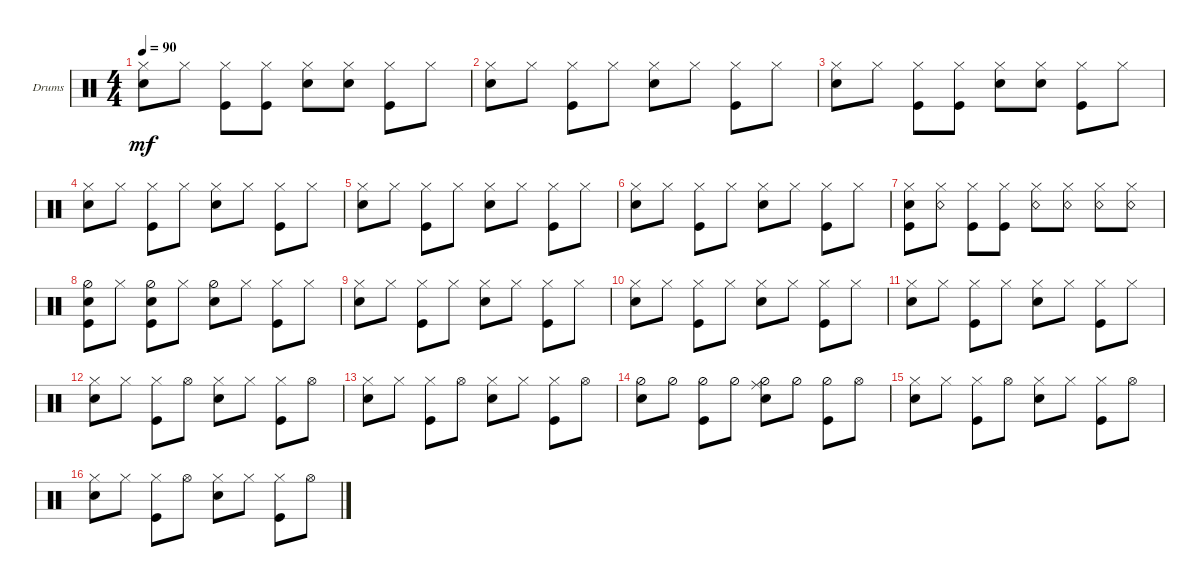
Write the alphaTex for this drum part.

\defaultSystemsLayout 4
\bracketExtendMode groupsimilarinstruments
\firstSystemTrackNameOrientation horizontal
\otherSystemsTrackNameOrientation horizontal
\track ("Drumkit" "Drums") {instrument percussion}
\staff {score}
\articulation defaults
\ts (4 4)
\tempo 90
\clef neutral
\ks c
("Snare (hit) 2" "Hi-Hat (closed)").8{dy mf} "Hi-Hat (closed)".8 ("Kick (hit)" "Hi-Hat (closed)").8 ("Hi-Hat (closed)" "Kick (hit)").8 ("Snare (hit) 2" "Hi-Hat (closed)").8 ("Hi-Hat (closed)" "Snare (hit) 2").8 ("Kick (hit)" "Hi-Hat (closed)").8 "Hi-Hat (closed)".8 |
("Snare (hit) 2" "Hi-Hat (closed)").8 "Hi-Hat (closed)".8 ("Kick (hit)" "Hi-Hat (closed)").8 "Hi-Hat (closed)".8 ("Snare (hit) 2" "Hi-Hat (closed)").8 "Hi-Hat (closed)".8 ("Kick (hit)" "Hi-Hat (closed)").8 "Hi-Hat (closed)".8 |
("Snare (hit) 2" "Hi-Hat (closed)").8 "Hi-Hat (closed)".8 ("Kick (hit)" "Hi-Hat (closed)").8 ("Hi-Hat (closed)" "Kick (hit)").8 ("Snare (hit) 2" "Hi-Hat (closed)").8 ("Hi-Hat (closed)" "Snare (hit) 2").8 ("Kick (hit)" "Hi-Hat (closed)").8 "Hi-Hat (closed)".8 |
("Snare (hit) 2" "Hi-Hat (closed)").8 "Hi-Hat (closed)".8 ("Kick (hit)" "Hi-Hat (closed)").8 "Hi-Hat (closed)".8 ("Snare (hit) 2" "Hi-Hat (closed)").8 "Hi-Hat (closed)".8 ("Kick (hit)" "Hi-Hat (closed)").8 "Hi-Hat (closed)".8 |
("Snare (hit) 2" "Hi-Hat (closed)").8 "Hi-Hat (closed)".8 ("Kick (hit)" "Hi-Hat (closed)").8 "Hi-Hat (closed)".8 ("Snare (hit) 2" "Hi-Hat (closed)").8 "Hi-Hat (closed)".8 ("Kick (hit)" "Hi-Hat (closed)").8 "Hi-Hat (closed)".8 |
("Snare (hit) 2" "Hi-Hat (closed)").8 "Hi-Hat (closed)".8 ("Kick (hit)" "Hi-Hat (closed)").8 "Hi-Hat (closed)".8 ("Snare (hit) 2" "Hi-Hat (closed)").8 "Hi-Hat (closed)".8 ("Kick (hit)" "Hi-Hat (closed)").8 "Hi-Hat (closed)".8 |
("Snare (hit) 2" "Hi-Hat (closed)" "Kick (hit)").8 ("Hi-Hat (closed)" "Snare (rim shot)").8 ("Kick (hit)" "Hi-Hat (closed)").8 ("Hi-Hat (closed)" "Kick (hit)").8 ("Snare (rim shot)" "Hi-Hat (closed)").8 ("Hi-Hat (closed)" "Snare (rim shot)").8 ("Hi-Hat (closed)" "Snare (rim shot)").8 ("Hi-Hat (closed)" "Snare (rim shot)").8 |
("Snare (hit) 2" "Kick (hit)" "Hi-Hat (half)").8 "Hi-Hat (closed)".8 ("Snare (hit) 2" "Kick (hit)" "Hi-Hat (half)").8 "Hi-Hat (closed)".8 ("Snare (hit) 2" "Hi-Hat (half)").8 "Hi-Hat (closed)".8 ("Kick (hit)" "Hi-Hat (closed)").8 "Hi-Hat (closed)".8 |
("Snare (hit) 2" "Hi-Hat (closed)").8 "Hi-Hat (closed)".8 ("Kick (hit)" "Hi-Hat (closed)").8 "Hi-Hat (closed)".8 ("Snare (hit) 2" "Hi-Hat (closed)").8 "Hi-Hat (closed)".8 ("Kick (hit)" "Hi-Hat (closed)").8 "Hi-Hat (closed)".8 |
("Snare (hit) 2" "Hi-Hat (closed)").8 "Hi-Hat (closed)".8 ("Kick (hit)" "Hi-Hat (closed)").8 "Hi-Hat (closed)".8 ("Snare (hit) 2" "Hi-Hat (closed)").8 "Hi-Hat (closed)".8 ("Kick (hit)" "Hi-Hat (closed)").8 "Hi-Hat (closed)".8 |
("Snare (hit) 2" "Hi-Hat (closed)").8 "Hi-Hat (closed)".8 ("Kick (hit)" "Hi-Hat (closed)").8 "Hi-Hat (closed)".8 ("Snare (hit) 2" "Hi-Hat (closed)").8 "Hi-Hat (closed)".8 ("Kick (hit)" "Hi-Hat (closed)").8 "Hi-Hat (closed)".8 |
("Snare (hit) 2" "Hi-Hat (closed)").8 "Hi-Hat (closed)".8 ("Kick (hit)" "Hi-Hat (closed)").8 "Hi-Hat (open)".8 ("Snare (hit) 2" "Hi-Hat (closed)").8 "Hi-Hat (closed)".8 ("Kick (hit)" "Hi-Hat (closed)").8 "Hi-Hat (open)".8 |
("Snare (hit) 2" "Hi-Hat (closed)").8 "Hi-Hat (closed)".8 ("Kick (hit)" "Hi-Hat (closed)").8 "Hi-Hat (open)".8 ("Snare (hit) 2" "Hi-Hat (closed)").8 "Hi-Hat (closed)".8 ("Kick (hit)" "Hi-Hat (closed)").8 "Hi-Hat (open)".8 |
("Snare (hit) 2" "Hi-Hat (half)").8 "Hi-Hat (half)".8 ("Kick (hit)" "Hi-Hat (half)").8 "Hi-Hat (half)".8 ("Snare (hit) 2" "Hi-Hat (half)" "Ride (middle)").8 "Hi-Hat (half)".8 ("Kick (hit)" "Hi-Hat (half)").8 "Hi-Hat (open)".8 |
("Snare (hit) 2" "Hi-Hat (closed)").8 "Hi-Hat (closed)".8 ("Kick (hit)" "Hi-Hat (closed)").8 "Hi-Hat (open)".8 ("Snare (hit) 2" "Hi-Hat (closed)").8 "Hi-Hat (closed)".8 ("Kick (hit)" "Hi-Hat (closed)").8 "Hi-Hat (open)".8 |
("Snare (hit) 2" "Hi-Hat (closed)").8 "Hi-Hat (closed)".8 ("Kick (hit)" "Hi-Hat (closed)").8 "Hi-Hat (open)".8 ("Snare (hit) 2" "Hi-Hat (closed)").8 "Hi-Hat (closed)".8 ("Kick (hit)" "Hi-Hat (closed)").8 "Hi-Hat (open)".8
